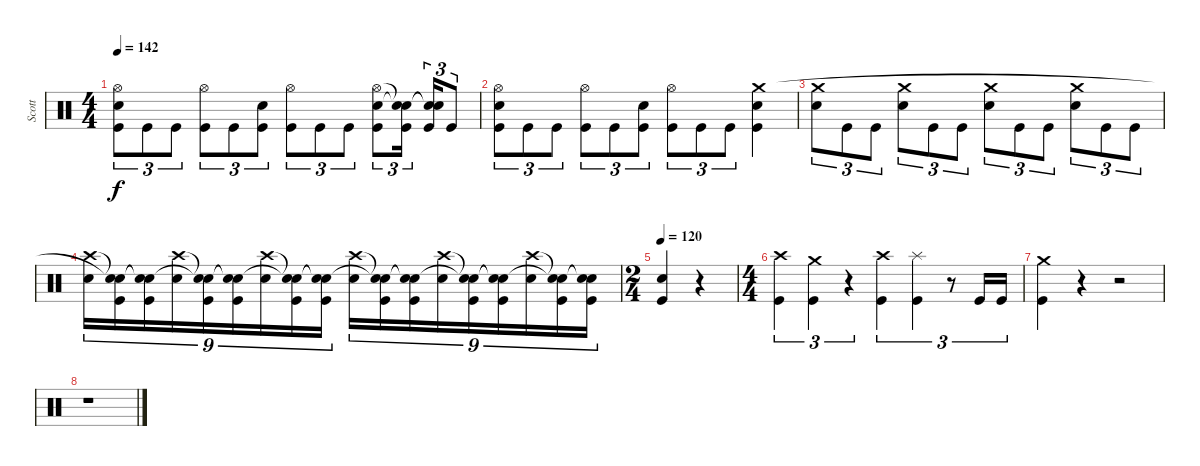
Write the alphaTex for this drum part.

\track ("Scott" "Scott") {instrument percussion}
\staff {score}
\articulation defaults
\ts (4 4)
\tempo 142
\clef neutral
\ks c
("Kick (hit)" "Snare (hit) 2" "Hi-Hat (open)").8{tu (3 2) dy f} "Kick (hit)".8{tu (3 2)} "Kick (hit)".8{tu (3 2)} ("Kick (hit)" "Hi-Hat (open)").8{tu (3 2)} "Kick (hit)".8{tu (3 2)} ("Kick (hit)" "Snare (hit) 2").8{tu (3 2)} ("Kick (hit)" "Hi-Hat (open)").8{tu (3 2)} "Kick (hit)".8{tu (3 2)} "Kick (hit)".8{tu (3 2)} ("Kick (hit)" "Snare (hit) 2" "Hi-Hat (open)").8{tu (3 2)} ("Kick (hit)" "Snare (hit)"{t} "Snare (hit)"{t}).16{tu (3 2)} ("Kick (hit)" "Snare (hit)"{t} "Snare (hit)"{t}).16{tu (3 2)} "Kick (hit)".8{tu (3 2)} |
("Kick (hit)" "Snare (hit) 2" "Hi-Hat (open)").8{tu (3 2)} "Kick (hit)".8{tu (3 2)} "Kick (hit)".8{tu (3 2)} ("Kick (hit)" "Hi-Hat (open)").8{tu (3 2)} "Kick (hit)".8{tu (3 2)} ("Kick (hit)" "Snare (hit) 2").8{tu (3 2)} ("Kick (hit)" "Hi-Hat (open)").8{tu (3 2)} "Kick (hit)".8{tu (3 2)} "Kick (hit)".8{tu (3 2)} ("Kick (hit)" "Snare (hit) 2" "Crash medium (hit)").4 |
("Snare (hit) 2" "Crash medium (hit)").8{tu (3 2)} "Kick (hit)".8{tu (3 2)} "Kick (hit)".8{tu (3 2)} ("Snare (hit) 2" "Crash medium (hit)").8{tu (3 2)} "Kick (hit)".8{tu (3 2)} "Kick (hit)".8{tu (3 2)} ("Snare (hit) 2" "Crash medium (hit)").8{tu (3 2)} "Kick (hit)".8{tu (3 2)} "Kick (hit)".8{tu (3 2)} ("Snare (hit) 2" "Crash medium (hit)").8{tu (3 2)} "Kick (hit)".8{tu (3 2)} "Kick (hit)".8{tu (3 2)} |
("Snare (hit) 2" "Crash high (hit)").16{tu (9 8)} ("Kick (hit)" "Snare (hit)"{t} "Snare (hit)"{t}).16{tu (9 8)} ("Kick (hit)" "Snare (hit)"{t} "Snare (hit)"{t}).16{tu (9 8)} ("Snare (hit) 2" "Crash high (hit)").16{tu (9 8)} ("Kick (hit)" "Snare (hit)"{t} "Snare (hit)"{t}).16{tu (9 8)} ("Kick (hit)" "Snare (hit)"{t} "Snare (hit)"{t}).16{tu (9 8)} ("Snare (hit) 2" "Crash high (hit)").16{tu (9 8)} ("Kick (hit)" "Snare (hit)"{t} "Snare (hit)"{t}).16{tu (9 8)} ("Kick (hit)" "Snare (hit)"{t} "Snare (hit)"{t}).16{tu (9 8)} ("Snare (hit) 2" "Crash high (hit)").16{tu (9 8)} ("Kick (hit)" "Snare (hit)"{t} "Snare (hit)"{t}).16{tu (9 8)} ("Kick (hit)" "Snare (hit)"{t} "Snare (hit)"{t}).16{tu (9 8)} ("Snare (hit) 2" "Crash high (hit)").16{tu (9 8)} ("Kick (hit)" "Snare (hit)"{t} "Snare (hit)"{t}).16{tu (9 8)} ("Kick (hit)" "Snare (hit)"{t} "Snare (hit)"{t}).16{tu (9 8)} ("Snare (hit) 2" "Crash high (hit)").16{tu (9 8)} ("Kick (hit)" "Snare (hit)"{t} "Snare (hit)"{t}).16{tu (9 8)} ("Kick (hit)" "Snare (hit)"{t} "Snare (hit)"{t}).16{tu (9 8)} |
\ts (2 4)
\tempo 120
("Kick (hit)" "Snare (hit) 2").4 r.4 |
\ts (4 4)
("Kick (hit)" "Crash high (hit)").4{tu (3 2)} ("Kick (hit)" "Crash medium (hit)").4{tu (3 2)} r.4{tu (3 2)} ("Kick (hit)" "Crash high (hit)").4{tu (3 2)} ("Kick (hit)" "Splash (hit)").4{tu (3 2)} r.8{tu (3 2)} "Kick (hit)".16{tu (3 2)} "Kick (hit)".16{tu (3 2)} |
("Kick (hit)" "Crash medium (hit)").4 r.4 r.2 |
r.1
